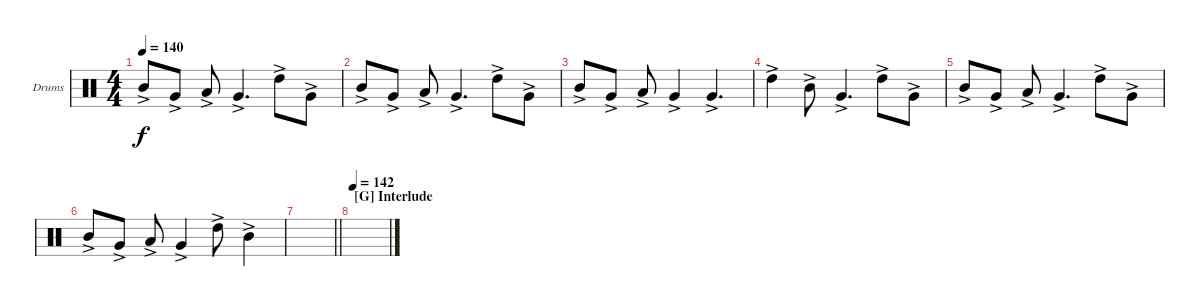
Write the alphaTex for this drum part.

\bracketExtendMode groupsimilarinstruments
\firstSystemTrackNameOrientation horizontal
\otherSystemsTrackNameOrientation horizontal
\track ("Drumkit" "Drums") {instrument percussion}
\staff {score}
\articulation defaults
\ts (4 4)
\tempo 140
\clef neutral
\ks c "Mid Tom (hit)"{ac}.8{dy f} "Very Low Tom (hit)"{ac}.8 "Low Tom (hit)"{ac}.8 "Very Low Tom (hit)"{ac}.4{d} "High Tom (hit)"{ac}.8 "Very Low Tom (hit)"{ac}.8
|
"Mid Tom (hit)"{ac}.8 "Very Low Tom (hit)"{ac}.8 "Low Tom (hit)"{ac}.8 "Very Low Tom (hit)"{ac}.4{d} "High Tom (hit)"{ac}.8 "Very Low Tom (hit)"{ac}.8 |
"Mid Tom (hit)"{ac}.8 "Very Low Tom (hit)"{ac}.8 "Low Tom (hit)"{ac}.8 "Very Low Tom (hit)"{ac}.4 "Very Low Tom (hit)"{ac}.4{d} |
"High Tom (hit)"{ac}.4 "Mid Tom (hit)"{ac}.8 "Very Low Tom (hit)"{ac}.4{d} "High Tom (hit)"{ac}.8 "Very Low Tom (hit)"{ac}.8 |
"Mid Tom (hit)"{ac}.8 "Very Low Tom (hit)"{ac}.8 "Low Tom (hit)"{ac}.8 "Very Low Tom (hit)"{ac}.4{d} "High Tom (hit)"{ac}.8 "Very Low Tom (hit)"{ac}.8 |
"Mid Tom (hit)"{ac}.8 "Very Low Tom (hit)"{ac}.8 "Low Tom (hit)"{ac}.8 "Very Low Tom (hit)"{ac}.4 "High Tom (hit)"{ac}.8 "Mid Tom (hit)"{ac}.4 |
\barLineRight lightlight
|
\section ("G" "Interlude")
\tempo 142
